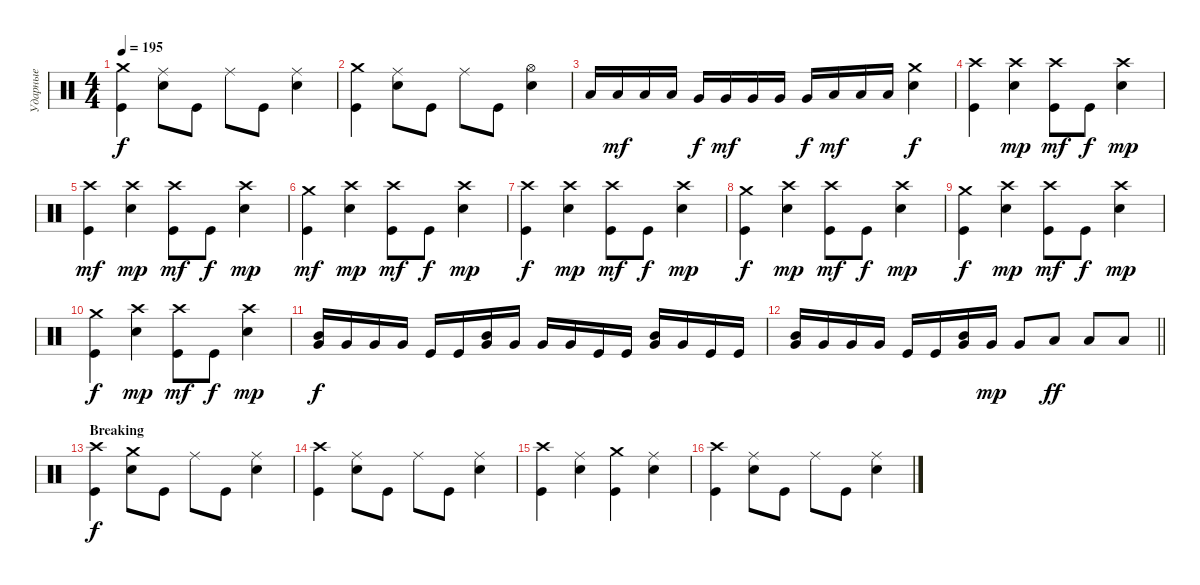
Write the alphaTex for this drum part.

\track ("Ударные" "Ударные") {instrument percussion}
\staff {score}
\articulation defaults
\ts (4 4)
\tempo 195
\clef neutral
\ks c
("Kick (hit)" "Crash medium (hit)").4{dy f} ("Snare (hit) 2" "Ride (middle)").8 "Kick (hit)".8 "Ride (middle)".8 "Kick (hit)".8 ("Snare (hit) 2" "Ride (middle)").4 |
("Kick (hit)" "Crash medium (hit)").4 ("Snare (hit) 2" "Ride (middle)").8 "Kick (hit)".8 "Ride (middle)".8 "Kick (hit)".8 ("Snare (hit) 2" "Hi-Hat (open)").4 |
"Low Tom (hit)".16 "Low Tom (hit)".16{dy mf} "Low Tom (hit)".16 "Low Tom (hit)".16 "Very Low Tom (hit)".16{dy f} "Very Low Tom (hit)".16{dy mf} "Very Low Tom (hit)".16 "Very Low Tom (hit)".16 "Very Low Tom (hit)".16{dy f} "Low Floor Tom (hit)".16{dy mf} "Low Floor Tom (hit)".16 "Low Floor Tom (hit)".16 ("Snare (hit) 2" "Crash medium (hit)").4{dy f} |
("Kick (hit)" "Crash high (hit)").4 ("Snare (hit) 2" "Crash high (hit)").4{dy mp} ("Kick (hit)" "Crash high (hit)").8{dy mf} "Kick (hit)".8{dy f} ("Snare (hit) 2" "Crash high (hit)").4{dy mp} |
("Kick (hit)" "Crash high (hit)").4{dy mf} ("Snare (hit) 2" "Crash high (hit)").4{dy mp} ("Kick (hit)" "Crash high (hit)").8{dy mf} "Kick (hit)".8{dy f} ("Snare (hit) 2" "Crash high (hit)").4{dy mp} |
("Kick (hit)" "Crash medium (hit)").4{dy mf} ("Snare (hit) 2" "Crash high (hit)").4{dy mp} ("Kick (hit)" "Crash high (hit)").8{dy mf} "Kick (hit)".8{dy f} ("Snare (hit) 2" "Crash high (hit)").4{dy mp} |
("Kick (hit)" "Crash high (hit)").4{dy f} ("Snare (hit) 2" "Crash high (hit)").4{dy mp} ("Kick (hit)" "Crash high (hit)").8{dy mf} "Kick (hit)".8{dy f} ("Snare (hit) 2" "Crash high (hit)").4{dy mp} |
("Kick (hit)" "Crash medium (hit)").4{dy f} ("Snare (hit) 2" "Crash high (hit)").4{dy mp} ("Kick (hit)" "Crash high (hit)").8{dy mf} "Kick (hit)".8{dy f} ("Snare (hit) 2" "Crash high (hit)").4{dy mp} |
("Kick (hit)" "Crash medium (hit)").4{dy f} ("Snare (hit) 2" "Crash high (hit)").4{dy mp} ("Kick (hit)" "Crash high (hit)").8{dy mf} "Kick (hit)".8{dy f} ("Snare (hit) 2" "Crash high (hit)").4{dy mp} |
("Kick (hit)" "Crash medium (hit)").4{dy f} ("Snare (hit) 2" "Crash high (hit)").4{dy mp} ("Kick (hit)" "Crash high (hit)").8{dy mf} "Kick (hit)".8{dy f} ("Snare (hit) 2" "Crash high (hit)").4{dy mp} |
("Mid Tom (hit)" "Very Low Tom (hit)").16{bd 240 dy f} "Very Low Tom (hit)".16 "Very Low Tom (hit)".16 "Very Low Tom (hit)".16 "Kick (hit)".16 "Kick (hit)".16 ("Mid Tom (hit)" "Very Low Tom (hit)").16{bd 240} "Very Low Tom (hit)".16 "Very Low Tom (hit)".16 "Very Low Tom (hit)".16 "Kick (hit)".16 "Kick (hit)".16 ("Mid Tom (hit)" "Very Low Tom (hit)").16{bd 240} "Very Low Tom (hit)".16 "Kick (hit)".16 "Kick (hit)".16 |
\barLineRight lightlight
("Mid Tom (hit)" "Very Low Tom (hit)").16{bd 240} "Very Low Tom (hit)".16 "Very Low Tom (hit)".16 "Very Low Tom (hit)".16 "Kick (hit)".16 "Kick (hit)".16 ("Mid Tom (hit)" "Very Low Tom (hit)").16{bd 240} "Very Low Tom (hit)".16{dy mp} "Very Low Tom (hit)".8 "Low Tom (hit)".8{dy ff} "Low Tom (hit)".8 "Low Tom (hit)".8 |
\section ("" "Breaking")
("Kick (hit)" "Crash high (hit)").4{dy f} ("Crash medium (hit)" "Snare (hit) 2").8 "Kick (hit)".8 "Ride (middle)".8 "Kick (hit)".8 ("Ride (middle)" "Snare (hit) 2").4 |
("Kick (hit)" "Crash high (hit)").4 ("Snare (hit) 2" "Ride (middle)").8 "Kick (hit)".8 "Ride (middle)".8 "Kick (hit)".8 ("Snare (hit) 2" "Ride (middle)").4 |
("Kick (hit)" "Crash high (hit)").4 ("Ride (middle)" "Snare (hit) 2").4 ("Crash medium (hit)" "Kick (hit)").4 ("Ride (middle)" "Snare (hit) 2").4 |
("Kick (hit)" "Crash high (hit)").4 ("Snare (hit) 2" "Ride (middle)").8 "Kick (hit)".8 "Ride (middle)".8 "Kick (hit)".8 ("Snare (hit) 2" "Ride (middle)").4
